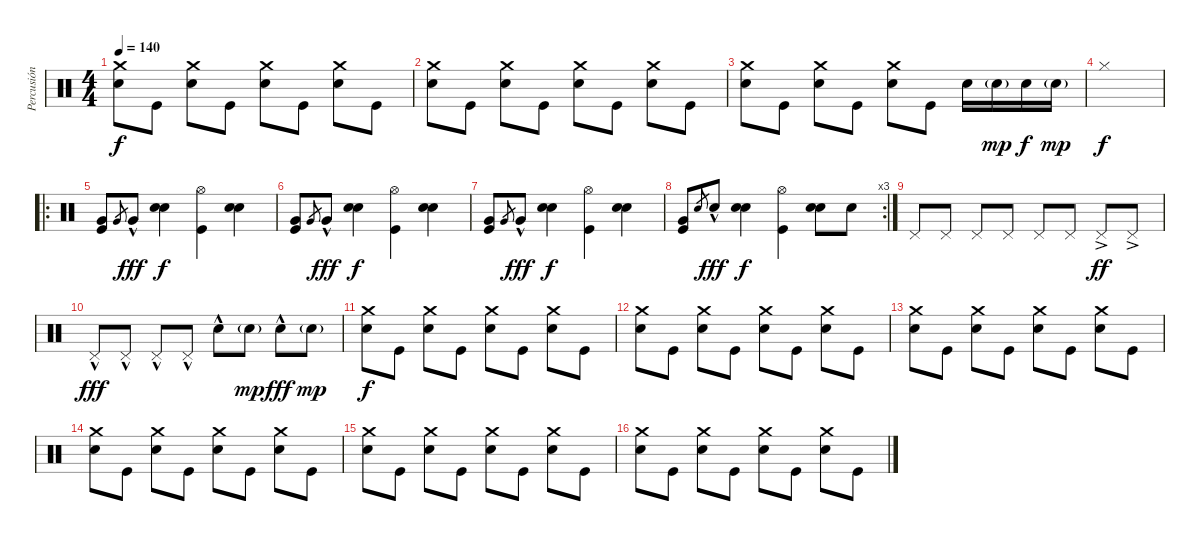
\track ("Percusión" "Percusión") {instrument percussion}
\staff {score}
\articulation defaults
\ts (4 4)
\tempo 140
\clef neutral
\ks c
("Crash medium (hit)" "Electric Snare (hit)").8{dy f} "Kick (hit)".8 ("Crash medium (hit)" "Electric Snare (hit)").8 "Kick (hit)".8 ("Crash medium (hit)" "Electric Snare (hit)").8 "Kick (hit)".8 ("Crash medium (hit)" "Electric Snare (hit)").8 "Kick (hit)".8 |
("Crash medium (hit)" "Electric Snare (hit)").8 "Kick (hit)".8 ("Crash medium (hit)" "Electric Snare (hit)").8 "Kick (hit)".8 ("Crash medium (hit)" "Electric Snare (hit)").8 "Kick (hit)".8 ("Crash medium (hit)" "Electric Snare (hit)").8 "Kick (hit)".8 |
("Crash medium (hit)" "Electric Snare (hit)").8 "Kick (hit)".8 ("Crash medium (hit)" "Electric Snare (hit)").8 "Kick (hit)".8 ("Crash medium (hit)" "Electric Snare (hit)").8 "Kick (hit)".8 "Electric Snare (hit)".16 "Electric Snare (hit)"{g}.16{dy mp} "Electric Snare (hit)".16{dy f} "Electric Snare (hit)"{g}.16{dy mp} |
"Hi-Hat (closed)".1{dy f} |
\ro
("Very Low Tom (hit)" "Kick (hit)").8 "Very Low Tom (hit)".8{gr} "Very Low Tom (hit)"{hac}.8{dy fff} ("Electric Snare (hit)" "Electric Snare (hit)").4{dy f} ("Hi-Hat (open)" "Kick (hit)").4 ("Electric Snare (hit)" "Electric Snare (hit)").4 |
("Very Low Tom (hit)" "Kick (hit)").8 "Very Low Tom (hit)"{h}.8{gr} "Very Low Tom (hit)"{hac}.8{dy fff} ("Electric Snare (hit)" "Electric Snare (hit)").4{dy f} ("Hi-Hat (open)" "Kick (hit)").4 ("Electric Snare (hit)" "Electric Snare (hit)").4 |
("Very Low Tom (hit)" "Kick (hit)").8 "Very Low Tom (hit)".8{gr} "Very Low Tom (hit)"{hac}.8{dy fff} ("Electric Snare (hit)" "Electric Snare (hit)").4{dy f} ("Hi-Hat (open)" "Kick (hit)").4 ("Electric Snare (hit)" "Electric Snare (hit)").4 |
\rc 3
("Very Low Tom (hit)" "Kick (hit)").8 "Electric Snare (hit)".8{gr} "Electric Snare (hit)"{hac}.8{dy fff} ("Electric Snare (hit)" "Electric Snare (hit)").4{dy f} ("Hi-Hat (open)" "Kick (hit)").4 ("Electric Snare (hit)" "Electric Snare (hit)").8 "Electric Snare (hit)".8 |
"Pedal Hi-Hat (hit)".8 "Pedal Hi-Hat (hit)".8 "Pedal Hi-Hat (hit)".8 "Pedal Hi-Hat (hit)".8 "Pedal Hi-Hat (hit)".8 "Pedal Hi-Hat (hit)".8 "Pedal Hi-Hat (hit)"{ac}.8{dy ff} "Pedal Hi-Hat (hit)"{ac}.8 |
"Pedal Hi-Hat (hit)"{hac}.8{dy fff} "Pedal Hi-Hat (hit)"{hac}.8 "Pedal Hi-Hat (hit)"{hac}.8 "Pedal Hi-Hat (hit)"{hac}.8 "Electric Snare (hit)"{hac}.8 "Electric Snare (hit)"{g}.8{dy mp} "Electric Snare (hit)"{hac}.8{dy fff} "Electric Snare (hit)"{g}.8{dy mp} |
("Crash medium (hit)" "Electric Snare (hit)").8{dy f} "Kick (hit)".8 ("Crash medium (hit)" "Electric Snare (hit)").8 "Kick (hit)".8 ("Crash medium (hit)" "Electric Snare (hit)").8 "Kick (hit)".8 ("Crash medium (hit)" "Electric Snare (hit)").8 "Kick (hit)".8 |
("Crash medium (hit)" "Electric Snare (hit)").8 "Kick (hit)".8 ("Crash medium (hit)" "Electric Snare (hit)").8 "Kick (hit)".8 ("Crash medium (hit)" "Electric Snare (hit)").8 "Kick (hit)".8 ("Crash medium (hit)" "Electric Snare (hit)").8 "Kick (hit)".8 |
("Crash medium (hit)" "Electric Snare (hit)").8 "Kick (hit)".8 ("Crash medium (hit)" "Electric Snare (hit)").8 "Kick (hit)".8 ("Crash medium (hit)" "Electric Snare (hit)").8 "Kick (hit)".8 ("Crash medium (hit)" "Electric Snare (hit)").8 "Kick (hit)".8 |
("Crash medium (hit)" "Electric Snare (hit)").8 "Kick (hit)".8 ("Crash medium (hit)" "Electric Snare (hit)").8 "Kick (hit)".8 ("Crash medium (hit)" "Electric Snare (hit)").8 "Kick (hit)".8 ("Crash medium (hit)" "Electric Snare (hit)").8 "Kick (hit)".8 |
("Crash medium (hit)" "Electric Snare (hit)").8 "Kick (hit)".8 ("Crash medium (hit)" "Electric Snare (hit)").8 "Kick (hit)".8 ("Crash medium (hit)" "Electric Snare (hit)").8 "Kick (hit)".8 ("Crash medium (hit)" "Electric Snare (hit)").8 "Kick (hit)".8 |
("Crash medium (hit)" "Electric Snare (hit)").8 "Kick (hit)".8 ("Crash medium (hit)" "Electric Snare (hit)").8 "Kick (hit)".8 ("Crash medium (hit)" "Electric Snare (hit)").8 "Kick (hit)".8 ("Crash medium (hit)" "Electric Snare (hit)").8 "Kick (hit)".8
